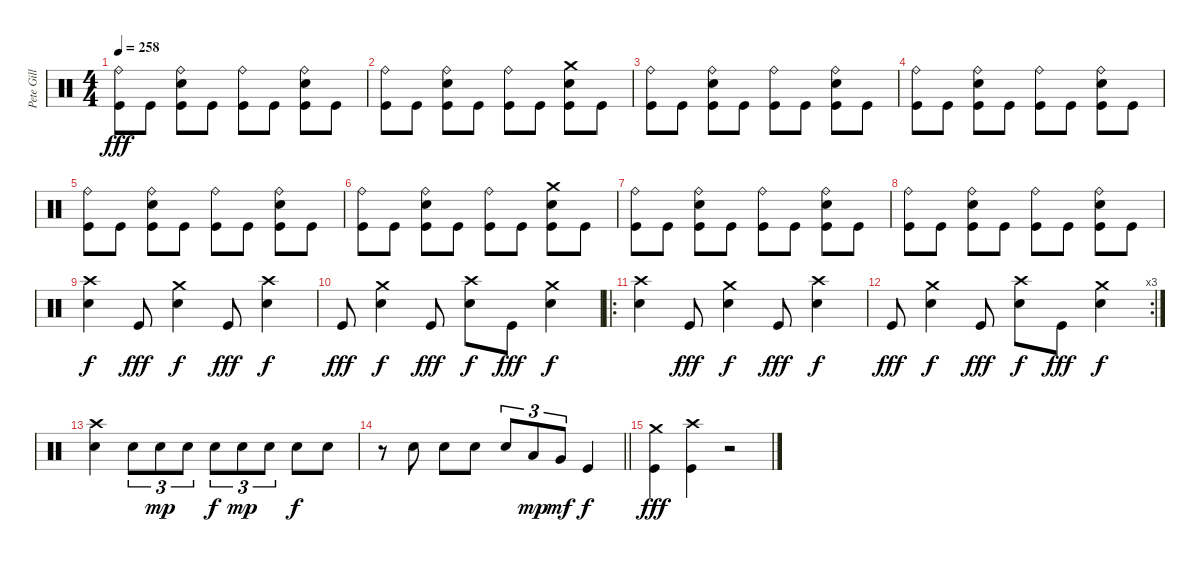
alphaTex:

\track ("Pete Gill" "Pete Gill") {instrument percussion}
\staff {score}
\articulation defaults
\ts (4 4)
\tempo 258
\clef neutral
\ks c
("Ride (bell)" "Kick (hit)").8{dy fff} "Kick (hit)".8 ("Ride (bell)" "Electric Snare (hit)" "Kick (hit)").8 "Kick (hit)".8 ("Ride (bell)" "Kick (hit)").8 "Kick (hit)".8 ("Ride (bell)" "Electric Snare (hit)" "Kick (hit)").8 "Kick (hit)".8 |
("Ride (bell)" "Kick (hit)").8 "Kick (hit)".8 ("Ride (bell)" "Electric Snare (hit)" "Kick (hit)").8 "Kick (hit)".8 ("Ride (bell)" "Kick (hit)").8 "Kick (hit)".8 ("Crash medium (hit)" "Electric Snare (hit)" "Kick (hit)").8 "Kick (hit)".8 |
("Ride (bell)" "Kick (hit)").8 "Kick (hit)".8 ("Ride (bell)" "Electric Snare (hit)" "Kick (hit)").8 "Kick (hit)".8 ("Ride (bell)" "Kick (hit)").8 "Kick (hit)".8 ("Ride (bell)" "Electric Snare (hit)" "Kick (hit)").8 "Kick (hit)".8 |
("Ride (bell)" "Kick (hit)").8 "Kick (hit)".8 ("Ride (bell)" "Electric Snare (hit)" "Kick (hit)").8 "Kick (hit)".8 ("Ride (bell)" "Kick (hit)").8 "Kick (hit)".8 ("Ride (bell)" "Electric Snare (hit)" "Kick (hit)").8 "Kick (hit)".8 |
("Ride (bell)" "Kick (hit)").8 "Kick (hit)".8 ("Ride (bell)" "Electric Snare (hit)" "Kick (hit)").8 "Kick (hit)".8 ("Ride (bell)" "Kick (hit)").8 "Kick (hit)".8 ("Ride (bell)" "Electric Snare (hit)" "Kick (hit)").8 "Kick (hit)".8 |
("Ride (bell)" "Kick (hit)").8 "Kick (hit)".8 ("Ride (bell)" "Electric Snare (hit)" "Kick (hit)").8 "Kick (hit)".8 ("Ride (bell)" "Kick (hit)").8 "Kick (hit)".8 ("Crash medium (hit)" "Electric Snare (hit)" "Kick (hit)").8 "Kick (hit)".8 |
("Ride (bell)" "Kick (hit)").8 "Kick (hit)".8 ("Ride (bell)" "Electric Snare (hit)" "Kick (hit)").8 "Kick (hit)".8 ("Ride (bell)" "Kick (hit)").8 "Kick (hit)".8 ("Ride (bell)" "Electric Snare (hit)" "Kick (hit)").8 "Kick (hit)".8 |
("Ride (bell)" "Kick (hit)").8 "Kick (hit)".8 ("Ride (bell)" "Electric Snare (hit)" "Kick (hit)").8 "Kick (hit)".8 ("Ride (bell)" "Kick (hit)").8 "Kick (hit)".8 ("Ride (bell)" "Electric Snare (hit)" "Kick (hit)").8 "Kick (hit)".8 |
("Crash high (hit)" "Electric Snare (hit)").4{dy f} "Kick (hit)".8{dy fff} ("Crash medium (hit)" "Electric Snare (hit)").4{dy f} "Kick (hit)".8{dy fff} ("Crash high (hit)" "Electric Snare (hit)").4{dy f} |
"Kick (hit)".8{dy fff} ("Crash medium (hit)" "Electric Snare (hit)").4{dy f} "Kick (hit)".8{dy fff} ("Crash high (hit)" "Electric Snare (hit)").8{dy f} "Kick (hit)".8{dy fff} ("Crash medium (hit)" "Electric Snare (hit)").4{dy f} |
\ro
("Crash high (hit)" "Electric Snare (hit)").4 "Kick (hit)".8{dy fff} ("Crash medium (hit)" "Electric Snare (hit)").4{dy f} "Kick (hit)".8{dy fff} ("Crash high (hit)" "Electric Snare (hit)").4{dy f} |
\rc 3 "Kick (hit)".8{dy fff}
("Crash medium (hit)" "Electric Snare (hit)").4{dy f} "Kick (hit)".8{dy fff} ("Crash high (hit)" "Electric Snare (hit)").8{dy f} "Kick (hit)".8{dy fff} ("Crash medium (hit)" "Electric Snare (hit)").4{dy f} |
("Crash high (hit)" "Electric Snare (hit)").4 "Electric Snare (hit)".8{tu (3 2)} "Electric Snare (hit)".8{tu (3 2) dy mp} "Electric Snare (hit)".8{tu (3 2)} "Electric Snare (hit)".8{tu (3 2) dy f} "Electric Snare (hit)".8{tu (3 2) dy mp} "Electric Snare (hit)".8{tu (3 2)} "Electric Snare (hit)".8{dy f} "Electric Snare (hit)".8 |
\barLineRight lightlight
r.8 "Electric Snare (hit)".8 "Electric Snare (hit)".8 "Electric Snare (hit)".8 "Electric Snare (hit)".8{tu (3 2)} "Low Tom (hit)".8{tu (3 2) dy mp} "Very Low Tom (hit)".8{tu (3 2) dy mf} "Kick (hit)".4{dy f} |
("Crash medium (hit)" "Kick (hit)").4{dy fff} ("Crash high (hit)" "Kick (hit)").4 r.2
